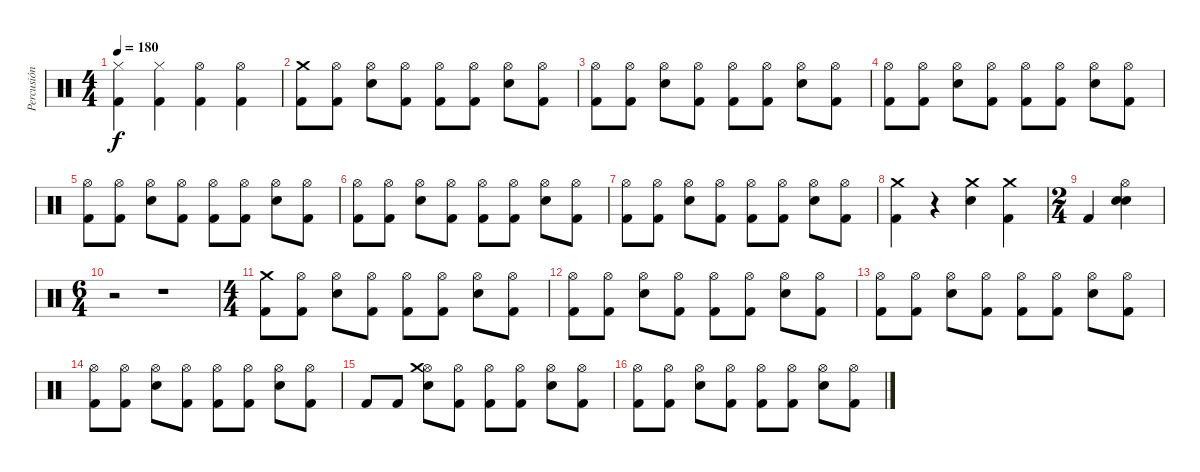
\track ("Percusión" "Percusión") {instrument percussion}
\staff {score}
\articulation defaults
\ts (4 4)
\tempo 180
\clef neutral
\ks c
("Kick (hit) 2" "Hi-Hat (closed)").4{dy f} ("Kick (hit) 2" "Hi-Hat (closed)").4 ("Kick (hit) 2" "Hi-Hat (open)").4 ("Kick (hit) 2" "Hi-Hat (open)").4 |
("Kick (hit) 2" "Crash medium (hit)").8 ("Kick (hit) 2" "Hi-Hat (open)").8 ("Electric Snare (hit)" "Hi-Hat (open)").8 ("Kick (hit) 2" "Hi-Hat (open)").8 ("Kick (hit) 2" "Hi-Hat (open)").8 ("Kick (hit) 2" "Hi-Hat (open)").8 ("Electric Snare (hit)" "Hi-Hat (open)").8 ("Kick (hit) 2" "Hi-Hat (open)").8 |
("Kick (hit) 2" "Hi-Hat (open)").8 ("Kick (hit) 2" "Hi-Hat (open)").8 ("Electric Snare (hit)" "Hi-Hat (open)").8 ("Kick (hit) 2" "Hi-Hat (open)").8 ("Kick (hit) 2" "Hi-Hat (open)").8 ("Kick (hit) 2" "Hi-Hat (open)").8 ("Electric Snare (hit)" "Hi-Hat (open)").8 ("Kick (hit) 2" "Hi-Hat (open)").8 |
("Kick (hit) 2" "Hi-Hat (open)").8 ("Kick (hit) 2" "Hi-Hat (open)").8 ("Electric Snare (hit)" "Hi-Hat (open)").8 ("Kick (hit) 2" "Hi-Hat (open)").8 ("Kick (hit) 2" "Hi-Hat (open)").8 ("Kick (hit) 2" "Hi-Hat (open)").8 ("Electric Snare (hit)" "Hi-Hat (open)").8 ("Kick (hit) 2" "Hi-Hat (open)").8 |
("Kick (hit) 2" "Hi-Hat (open)").8 ("Kick (hit) 2" "Hi-Hat (open)").8 ("Electric Snare (hit)" "Hi-Hat (open)").8 ("Kick (hit) 2" "Hi-Hat (open)").8 ("Kick (hit) 2" "Hi-Hat (open)").8 ("Kick (hit) 2" "Hi-Hat (open)").8 ("Electric Snare (hit)" "Hi-Hat (open)").8 ("Kick (hit) 2" "Hi-Hat (open)").8 |
("Kick (hit) 2" "Hi-Hat (open)").8 ("Kick (hit) 2" "Hi-Hat (open)").8 ("Electric Snare (hit)" "Hi-Hat (open)").8 ("Kick (hit) 2" "Hi-Hat (open)").8 ("Kick (hit) 2" "Hi-Hat (open)").8 ("Kick (hit) 2" "Hi-Hat (open)").8 ("Electric Snare (hit)" "Hi-Hat (open)").8 ("Kick (hit) 2" "Hi-Hat (open)").8 |
("Kick (hit) 2" "Hi-Hat (open)").8 ("Kick (hit) 2" "Hi-Hat (open)").8 ("Electric Snare (hit)" "Hi-Hat (open)").8 ("Kick (hit) 2" "Hi-Hat (open)").8 ("Kick (hit) 2" "Hi-Hat (open)").8 ("Kick (hit) 2" "Hi-Hat (open)").8 ("Electric Snare (hit)" "Hi-Hat (open)").8 ("Kick (hit) 2" "Hi-Hat (open)").8 |
("Kick (hit) 2" "Crash medium (hit)").4 r.4 ("Electric Snare (hit)" "Crash medium (hit)").4 ("Kick (hit) 2" "Crash medium (hit)").4 |
\ts (2 4)
"Kick (hit) 2".4 ("Electric Snare (hit)" "Electric Snare (hit)" "Hi-Hat (open)").4 |
\ts (6 4)
r.2 r.1 |
\ts (4 4)
("Kick (hit) 2" "Crash medium (hit)").8 ("Kick (hit) 2" "Hi-Hat (open)").8 ("Electric Snare (hit)" "Hi-Hat (open)").8 ("Kick (hit) 2" "Hi-Hat (open)").8 ("Kick (hit) 2" "Hi-Hat (open)").8 ("Kick (hit) 2" "Hi-Hat (open)").8 ("Electric Snare (hit)" "Hi-Hat (open)").8 ("Kick (hit) 2" "Hi-Hat (open)").8 |
("Kick (hit) 2" "Hi-Hat (open)").8 ("Kick (hit) 2" "Hi-Hat (open)").8 ("Electric Snare (hit)" "Hi-Hat (open)").8 ("Kick (hit) 2" "Hi-Hat (open)").8 ("Kick (hit) 2" "Hi-Hat (open)").8 ("Kick (hit) 2" "Hi-Hat (open)").8 ("Electric Snare (hit)" "Hi-Hat (open)").8 ("Kick (hit) 2" "Hi-Hat (open)").8 |
("Kick (hit) 2" "Hi-Hat (open)").8 ("Kick (hit) 2" "Hi-Hat (open)").8 ("Electric Snare (hit)" "Hi-Hat (open)").8 ("Kick (hit) 2" "Hi-Hat (open)").8 ("Kick (hit) 2" "Hi-Hat (open)").8 ("Kick (hit) 2" "Hi-Hat (open)").8 ("Electric Snare (hit)" "Hi-Hat (open)").8 ("Kick (hit) 2" "Hi-Hat (open)").8 |
("Kick (hit) 2" "Hi-Hat (open)").8 ("Kick (hit) 2" "Hi-Hat (open)").8 ("Electric Snare (hit)" "Hi-Hat (open)").8 ("Kick (hit) 2" "Hi-Hat (open)").8 ("Kick (hit) 2" "Hi-Hat (open)").8 ("Kick (hit) 2" "Hi-Hat (open)").8 ("Electric Snare (hit)" "Hi-Hat (open)").8 ("Kick (hit) 2" "Hi-Hat (open)").8 |
"Kick (hit) 2".8 "Kick (hit) 2".8 ("Electric Snare (hit)" "Hi-Hat (open)" "Crash medium (hit)").8 ("Kick (hit) 2" "Hi-Hat (open)").8 ("Kick (hit) 2" "Hi-Hat (open)").8 ("Kick (hit) 2" "Hi-Hat (open)").8 ("Electric Snare (hit)" "Hi-Hat (open)").8 ("Kick (hit) 2" "Hi-Hat (open)").8 |
("Kick (hit) 2" "Hi-Hat (open)").8 ("Kick (hit) 2" "Hi-Hat (open)").8 ("Electric Snare (hit)" "Hi-Hat (open)").8 ("Kick (hit) 2" "Hi-Hat (open)").8 ("Kick (hit) 2" "Hi-Hat (open)").8 ("Kick (hit) 2" "Hi-Hat (open)").8 ("Electric Snare (hit)" "Hi-Hat (open)").8 ("Kick (hit) 2" "Hi-Hat (open)").8
